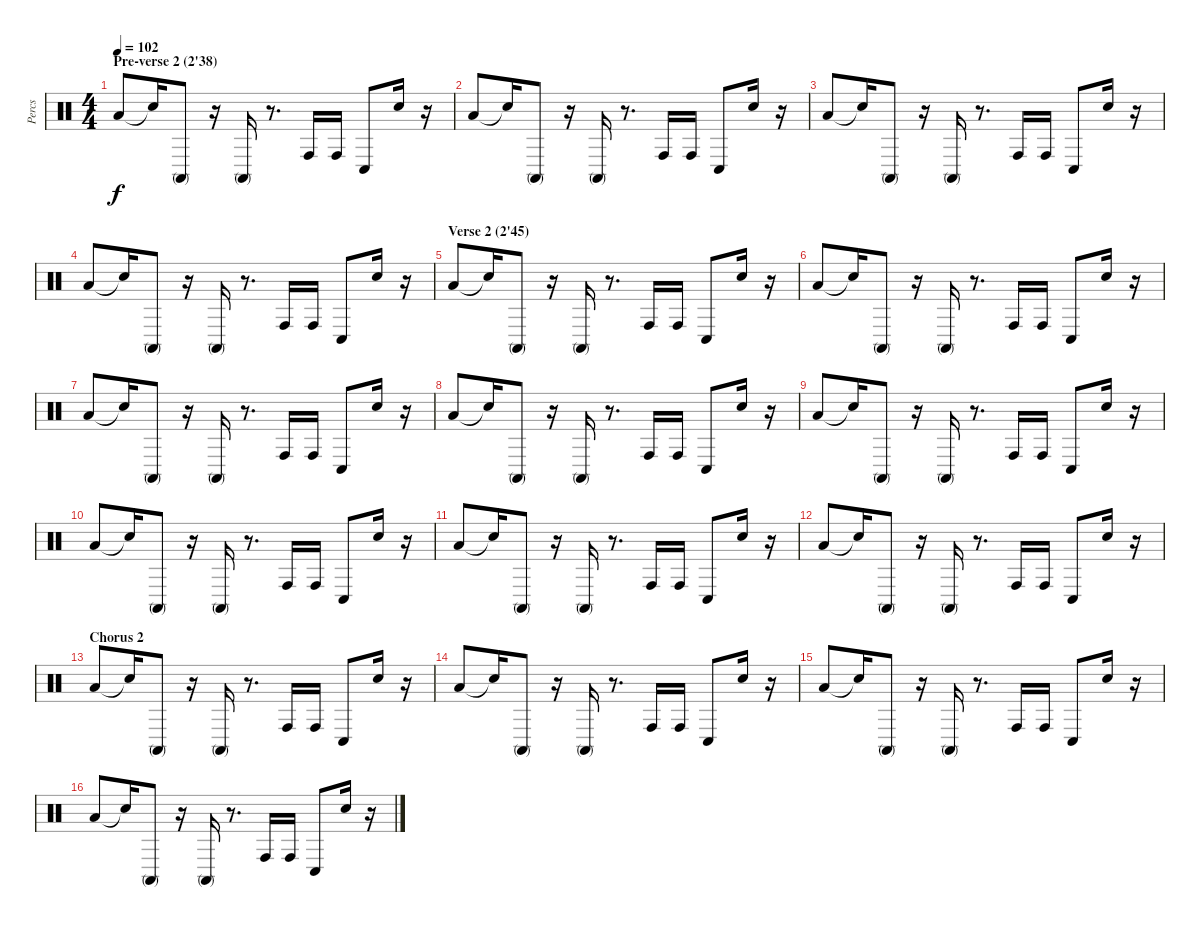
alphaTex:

\track ("Percs" "Percs") {instrument percussion}
\staff {score}
\articulation defaults
\ts (4 4)
\section ("" "Pre-verse 2 (2'38)")
\tempo 102
\clef neutral
\ks c "Low Floor Tom (hit)".8{dy f} "Snare (hit)"{t}.16 "Conga high (mute)".8
r.16 "Conga high (mute)".16 r.8{d} "Conga high (hit)".16 "Conga high (hit)".16 "Conga low (hit)".8 "Hand Clap (hit)".16 r.16 |
"Low Floor Tom (hit)".8 "Snare (hit)"{t}.16 "Conga high (mute)".8 r.16 "Conga high (mute)".16 r.8{d} "Conga high (hit)".16 "Conga high (hit)".16 "Conga low (hit)".8 "Hand Clap (hit)".16 r.16 |
"Low Floor Tom (hit)".8 "Snare (hit)"{t}.16 "Conga high (mute)".8 r.16 "Conga high (mute)".16 r.8{d} "Conga high (hit)".16 "Conga high (hit)".16 "Conga low (hit)".8 "Hand Clap (hit)".16 r.16 |
"Low Floor Tom (hit)".8 "Snare (hit)"{t}.16 "Conga high (mute)".8 r.16 "Conga high (mute)".16 r.8{d} "Conga high (hit)".16 "Conga high (hit)".16 "Conga low (hit)".8 "Hand Clap (hit)".16 r.16 |
\section ("" "Verse 2 (2'45)")
"Low Floor Tom (hit)".8 "Snare (hit)"{t}.16 "Conga high (mute)".8 r.16 "Conga high (mute)".16 r.8{d} "Conga high (hit)".16 "Conga high (hit)".16 "Conga low (hit)".8 "Hand Clap (hit)".16 r.16 |
"Low Floor Tom (hit)".8 "Snare (hit)"{t}.16 "Conga high (mute)".8 r.16 "Conga high (mute)".16 r.8{d} "Conga high (hit)".16 "Conga high (hit)".16 "Conga low (hit)".8 "Hand Clap (hit)".16 r.16 |
"Low Floor Tom (hit)".8 "Snare (hit)"{t}.16 "Conga high (mute)".8 r.16 "Conga high (mute)".16 r.8{d} "Conga high (hit)".16 "Conga high (hit)".16 "Conga low (hit)".8 "Hand Clap (hit)".16 r.16 |
"Low Floor Tom (hit)".8 "Snare (hit)"{t}.16 "Conga high (mute)".8 r.16 "Conga high (mute)".16 r.8{d} "Conga high (hit)".16 "Conga high (hit)".16 "Conga low (hit)".8 "Hand Clap (hit)".16 r.16 |
"Low Floor Tom (hit)".8 "Snare (hit)"{t}.16 "Conga high (mute)".8 r.16 "Conga high (mute)".16 r.8{d} "Conga high (hit)".16 "Conga high (hit)".16 "Conga low (hit)".8 "Hand Clap (hit)".16 r.16 |
"Low Floor Tom (hit)".8 "Snare (hit)"{t}.16 "Conga high (mute)".8 r.16 "Conga high (mute)".16 r.8{d} "Conga high (hit)".16 "Conga high (hit)".16 "Conga low (hit)".8 "Hand Clap (hit)".16 r.16 |
"Low Floor Tom (hit)".8 "Snare (hit)"{t}.16 "Conga high (mute)".8 r.16 "Conga high (mute)".16 r.8{d} "Conga high (hit)".16 "Conga high (hit)".16 "Conga low (hit)".8 "Hand Clap (hit)".16 r.16 |
"Low Floor Tom (hit)".8 "Snare (hit)"{t}.16 "Conga high (mute)".8 r.16 "Conga high (mute)".16 r.8{d} "Conga high (hit)".16 "Conga high (hit)".16 "Conga low (hit)".8 "Hand Clap (hit)".16 r.16 |
\section ("" "Chorus 2")
"Low Floor Tom (hit)".8 "Snare (hit)"{t}.16 "Conga high (mute)".8 r.16 "Conga high (mute)".16 r.8{d} "Conga high (hit)".16 "Conga high (hit)".16 "Conga low (hit)".8 "Hand Clap (hit)".16 r.16 |
"Low Floor Tom (hit)".8 "Snare (hit)"{t}.16 "Conga high (mute)".8 r.16 "Conga high (mute)".16 r.8{d} "Conga high (hit)".16 "Conga high (hit)".16 "Conga low (hit)".8 "Hand Clap (hit)".16 r.16 |
"Low Floor Tom (hit)".8 "Snare (hit)"{t}.16 "Conga high (mute)".8 r.16 "Conga high (mute)".16 r.8{d} "Conga high (hit)".16 "Conga high (hit)".16 "Conga low (hit)".8 "Hand Clap (hit)".16 r.16 |
"Low Floor Tom (hit)".8 "Snare (hit)"{t}.16 "Conga high (mute)".8 r.16 "Conga high (mute)".16 r.8{d} "Conga high (hit)".16 "Conga high (hit)".16 "Conga low (hit)".8 "Hand Clap (hit)".16 r.16
